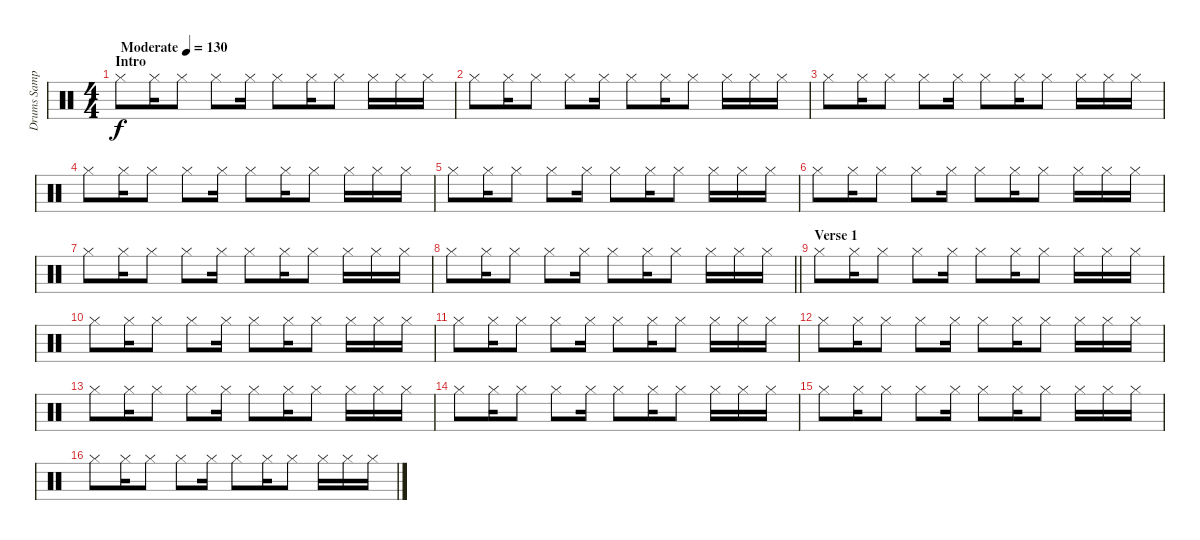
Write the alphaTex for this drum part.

\track ("Drums Sample" "Drums Samp") {instrument percussion}
\staff {score}
\articulation defaults
\ts (4 4)
\section ("" "Intro")
\tempo (130 "Moderate")
\clef neutral
\ks c "Hi-Hat (closed)".8{dy f} "Hi-Hat (closed)".16 "Hi-Hat (closed)".8 "Hi-Hat (closed)".8 "Hi-Hat (closed)".16 "Hi-Hat (closed)".8 "Hi-Hat (closed)".16 "Hi-Hat (closed)".8 "Hi-Hat (closed)".16 "Hi-Hat (closed)".16 "Hi-Hat (closed)".16
|
"Hi-Hat (closed)".8 "Hi-Hat (closed)".16 "Hi-Hat (closed)".8 "Hi-Hat (closed)".8 "Hi-Hat (closed)".16 "Hi-Hat (closed)".8 "Hi-Hat (closed)".16 "Hi-Hat (closed)".8 "Hi-Hat (closed)".16 "Hi-Hat (closed)".16 "Hi-Hat (closed)".16 |
"Hi-Hat (closed)".8 "Hi-Hat (closed)".16 "Hi-Hat (closed)".8 "Hi-Hat (closed)".8 "Hi-Hat (closed)".16 "Hi-Hat (closed)".8 "Hi-Hat (closed)".16 "Hi-Hat (closed)".8 "Hi-Hat (closed)".16 "Hi-Hat (closed)".16 "Hi-Hat (closed)".16 |
"Hi-Hat (closed)".8 "Hi-Hat (closed)".16 "Hi-Hat (closed)".8 "Hi-Hat (closed)".8 "Hi-Hat (closed)".16 "Hi-Hat (closed)".8 "Hi-Hat (closed)".16 "Hi-Hat (closed)".8 "Hi-Hat (closed)".16 "Hi-Hat (closed)".16 "Hi-Hat (closed)".16 |
"Hi-Hat (closed)".8 "Hi-Hat (closed)".16 "Hi-Hat (closed)".8 "Hi-Hat (closed)".8 "Hi-Hat (closed)".16 "Hi-Hat (closed)".8 "Hi-Hat (closed)".16 "Hi-Hat (closed)".8 "Hi-Hat (closed)".16 "Hi-Hat (closed)".16 "Hi-Hat (closed)".16 |
"Hi-Hat (closed)".8 "Hi-Hat (closed)".16 "Hi-Hat (closed)".8 "Hi-Hat (closed)".8 "Hi-Hat (closed)".16 "Hi-Hat (closed)".8 "Hi-Hat (closed)".16 "Hi-Hat (closed)".8 "Hi-Hat (closed)".16 "Hi-Hat (closed)".16 "Hi-Hat (closed)".16 |
"Hi-Hat (closed)".8 "Hi-Hat (closed)".16 "Hi-Hat (closed)".8 "Hi-Hat (closed)".8 "Hi-Hat (closed)".16 "Hi-Hat (closed)".8 "Hi-Hat (closed)".16 "Hi-Hat (closed)".8 "Hi-Hat (closed)".16 "Hi-Hat (closed)".16 "Hi-Hat (closed)".16 |
\barLineRight lightlight "Hi-Hat (closed)".8 "Hi-Hat (closed)".16 "Hi-Hat (closed)".8 "Hi-Hat (closed)".8 "Hi-Hat (closed)".16 "Hi-Hat (closed)".8 "Hi-Hat (closed)".16 "Hi-Hat (closed)".8 "Hi-Hat (closed)".16 "Hi-Hat (closed)".16 "Hi-Hat (closed)".16
|
\section ("" "Verse 1")
"Hi-Hat (closed)".8 "Hi-Hat (closed)".16 "Hi-Hat (closed)".8 "Hi-Hat (closed)".8 "Hi-Hat (closed)".16 "Hi-Hat (closed)".8 "Hi-Hat (closed)".16 "Hi-Hat (closed)".8 "Hi-Hat (closed)".16 "Hi-Hat (closed)".16 "Hi-Hat (closed)".16 |
"Hi-Hat (closed)".8 "Hi-Hat (closed)".16 "Hi-Hat (closed)".8 "Hi-Hat (closed)".8 "Hi-Hat (closed)".16 "Hi-Hat (closed)".8 "Hi-Hat (closed)".16 "Hi-Hat (closed)".8 "Hi-Hat (closed)".16 "Hi-Hat (closed)".16 "Hi-Hat (closed)".16 |
"Hi-Hat (closed)".8 "Hi-Hat (closed)".16 "Hi-Hat (closed)".8 "Hi-Hat (closed)".8 "Hi-Hat (closed)".16 "Hi-Hat (closed)".8 "Hi-Hat (closed)".16 "Hi-Hat (closed)".8 "Hi-Hat (closed)".16 "Hi-Hat (closed)".16 "Hi-Hat (closed)".16 |
"Hi-Hat (closed)".8 "Hi-Hat (closed)".16 "Hi-Hat (closed)".8 "Hi-Hat (closed)".8 "Hi-Hat (closed)".16 "Hi-Hat (closed)".8 "Hi-Hat (closed)".16 "Hi-Hat (closed)".8 "Hi-Hat (closed)".16 "Hi-Hat (closed)".16 "Hi-Hat (closed)".16 |
"Hi-Hat (closed)".8 "Hi-Hat (closed)".16 "Hi-Hat (closed)".8 "Hi-Hat (closed)".8 "Hi-Hat (closed)".16 "Hi-Hat (closed)".8 "Hi-Hat (closed)".16 "Hi-Hat (closed)".8 "Hi-Hat (closed)".16 "Hi-Hat (closed)".16 "Hi-Hat (closed)".16 |
"Hi-Hat (closed)".8 "Hi-Hat (closed)".16 "Hi-Hat (closed)".8 "Hi-Hat (closed)".8 "Hi-Hat (closed)".16 "Hi-Hat (closed)".8 "Hi-Hat (closed)".16 "Hi-Hat (closed)".8 "Hi-Hat (closed)".16 "Hi-Hat (closed)".16 "Hi-Hat (closed)".16 |
"Hi-Hat (closed)".8 "Hi-Hat (closed)".16 "Hi-Hat (closed)".8 "Hi-Hat (closed)".8 "Hi-Hat (closed)".16 "Hi-Hat (closed)".8 "Hi-Hat (closed)".16 "Hi-Hat (closed)".8 "Hi-Hat (closed)".16 "Hi-Hat (closed)".16 "Hi-Hat (closed)".16 |
"Hi-Hat (closed)".8 "Hi-Hat (closed)".16 "Hi-Hat (closed)".8 "Hi-Hat (closed)".8 "Hi-Hat (closed)".16 "Hi-Hat (closed)".8 "Hi-Hat (closed)".16 "Hi-Hat (closed)".8 "Hi-Hat (closed)".16 "Hi-Hat (closed)".16 "Hi-Hat (closed)".16
